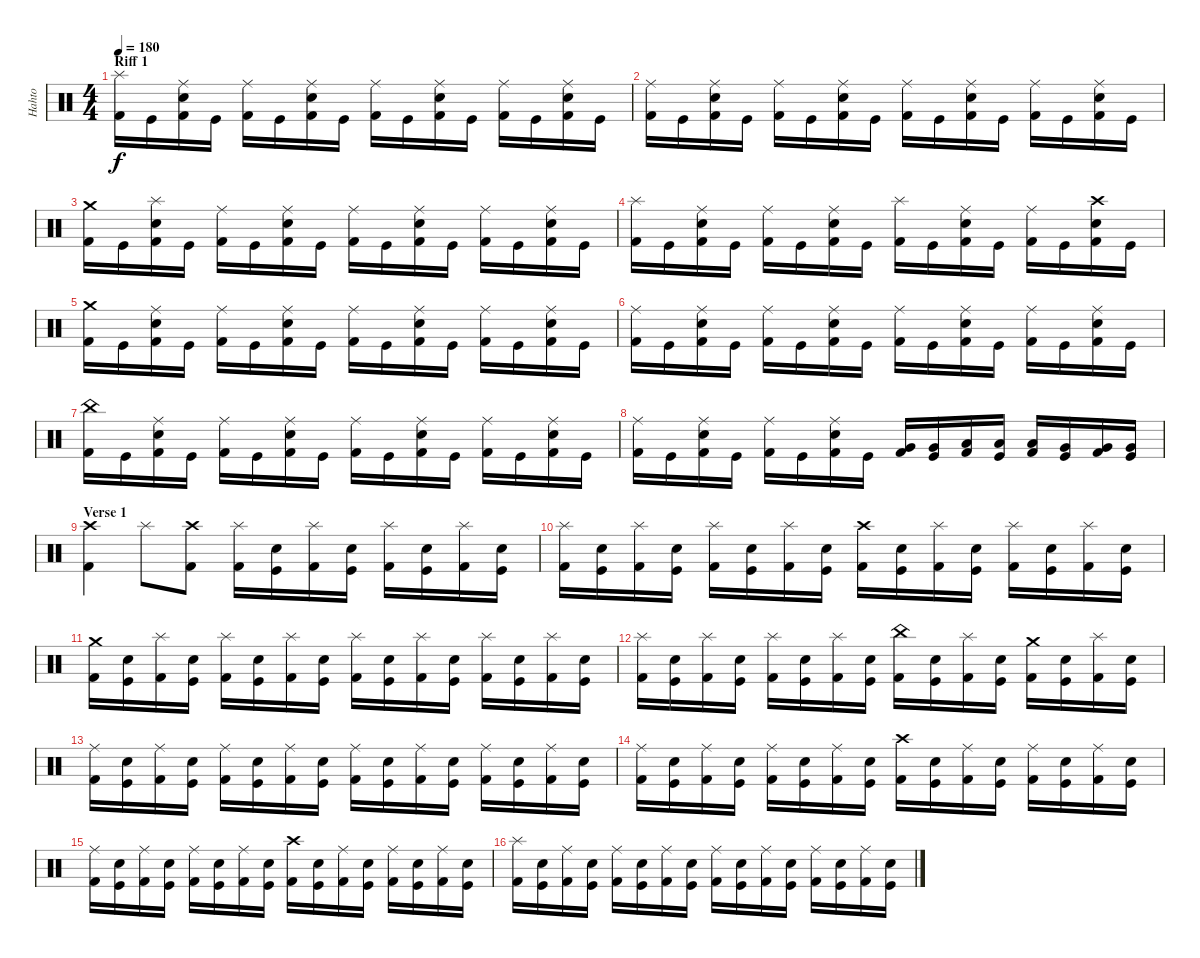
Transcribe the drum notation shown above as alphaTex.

\track ("Hahto" "Hahto") {instrument percussion}
\staff {score}
\articulation defaults
\ts (4 4)
\section ("" "Riff 1")
\tempo 180
\clef neutral
\ks c
("Splash (hit)" "Kick (hit) 2").16{dy f} "Kick (hit)".16 ("Ride (middle)" "Snare (hit) 2" "Kick (hit) 2").16 "Kick (hit)".16 ("Ride (middle)" "Kick (hit) 2").16 "Kick (hit)".16 ("Ride (middle)" "Snare (hit) 2" "Kick (hit) 2").16 "Kick (hit)".16 ("Ride (middle)" "Kick (hit) 2").16 "Kick (hit)".16 ("Ride (middle)" "Snare (hit) 2" "Kick (hit) 2").16 "Kick (hit)".16 ("Ride (middle)" "Kick (hit) 2").16 "Kick (hit)".16 ("Ride (middle)" "Snare (hit) 2" "Kick (hit) 2").16 "Kick (hit)".16 |
("Ride (middle)" "Kick (hit) 2").16 "Kick (hit)".16 ("Ride (middle)" "Snare (hit) 2" "Kick (hit) 2").16 "Kick (hit)".16 ("Ride (middle)" "Kick (hit) 2").16 "Kick (hit)".16 ("Ride (middle)" "Snare (hit) 2" "Kick (hit) 2").16 "Kick (hit)".16 ("Ride (middle)" "Kick (hit) 2").16 "Kick (hit)".16 ("Ride (middle)" "Snare (hit) 2" "Kick (hit) 2").16 "Kick (hit)".16 ("Ride (middle)" "Kick (hit) 2").16 "Kick (hit)".16 ("Ride (middle)" "Snare (hit) 2" "Kick (hit) 2").16 "Kick (hit)".16 |
("Crash medium (hit)" "Kick (hit) 2").16 "Kick (hit)".16 ("Splash (hit)" "Snare (hit) 2" "Kick (hit) 2").16 "Kick (hit)".16 ("Ride (middle)" "Kick (hit) 2").16 "Kick (hit)".16 ("Ride (middle)" "Snare (hit) 2" "Kick (hit) 2").16 "Kick (hit)".16 ("Ride (middle)" "Kick (hit) 2").16 "Kick (hit)".16 ("Ride (middle)" "Snare (hit) 2" "Kick (hit) 2").16 "Kick (hit)".16 ("Ride (middle)" "Kick (hit) 2").16 "Kick (hit)".16 ("Ride (middle)" "Snare (hit) 2" "Kick (hit) 2").16 "Kick (hit)".16 |
("Splash (hit)" "Kick (hit) 2").16 "Kick (hit)".16 ("Ride (middle)" "Snare (hit) 2" "Kick (hit) 2").16 "Kick (hit)".16 ("Ride (middle)" "Kick (hit) 2").16 "Kick (hit)".16 ("Ride (middle)" "Snare (hit) 2" "Kick (hit) 2").16 "Kick (hit)".16 ("Splash (hit)" "Kick (hit) 2").16 "Kick (hit)".16 ("Ride (middle)" "Snare (hit) 2" "Kick (hit) 2").16 "Kick (hit)".16 ("Ride (middle)" "Kick (hit) 2").16 "Kick (hit)".16 ("Crash high (hit)" "Snare (hit) 2" "Kick (hit) 2").16 "Kick (hit)".16 |
("Crash medium (hit)" "Kick (hit) 2").16 "Kick (hit)".16 ("Ride (middle)" "Snare (hit) 2" "Kick (hit) 2").16 "Kick (hit)".16 ("Ride (middle)" "Kick (hit) 2").16 "Kick (hit)".16 ("Ride (middle)" "Snare (hit) 2" "Kick (hit) 2").16 "Kick (hit)".16 ("Ride (middle)" "Kick (hit) 2").16 "Kick (hit)".16 ("Ride (middle)" "Snare (hit) 2" "Kick (hit) 2").16 "Kick (hit)".16 ("Ride (middle)" "Kick (hit) 2").16 "Kick (hit)".16 ("Ride (middle)" "Snare (hit) 2" "Kick (hit) 2").16 "Kick (hit)".16 |
("Ride (middle)" "Kick (hit) 2").16 "Kick (hit)".16 ("Ride (middle)" "Snare (hit) 2" "Kick (hit) 2").16 "Kick (hit)".16 ("Ride (middle)" "Kick (hit) 2").16 "Kick (hit)".16 ("Ride (middle)" "Snare (hit) 2" "Kick (hit) 2").16 "Kick (hit)".16 ("Ride (middle)" "Kick (hit) 2").16 "Kick (hit)".16 ("Ride (middle)" "Snare (hit) 2" "Kick (hit) 2").16 "Kick (hit)".16 ("Ride (middle)" "Kick (hit) 2").16 "Kick (hit)".16 ("Ride (middle)" "Snare (hit) 2" "Kick (hit) 2").16 "Kick (hit)".16 |
("China (hit)" "Kick (hit) 2").16 "Kick (hit)".16 ("Ride (middle)" "Snare (hit) 2" "Kick (hit) 2").16 "Kick (hit)".16 ("Ride (middle)" "Kick (hit) 2").16 "Kick (hit)".16 ("Ride (middle)" "Snare (hit) 2" "Kick (hit) 2").16 "Kick (hit)".16 ("Ride (middle)" "Kick (hit) 2").16 "Kick (hit)".16 ("Ride (middle)" "Snare (hit) 2" "Kick (hit) 2").16 "Kick (hit)".16 ("Ride (middle)" "Kick (hit) 2").16 "Kick (hit)".16 ("Ride (middle)" "Snare (hit) 2" "Kick (hit) 2").16 "Kick (hit)".16 |
("Ride (middle)" "Kick (hit) 2").16 "Kick (hit)".16 ("Ride (middle)" "Snare (hit) 2" "Kick (hit) 2").16 "Kick (hit)".16 ("Ride (middle)" "Kick (hit) 2").16 "Kick (hit)".16 ("Ride (middle)" "Snare (hit) 2" "Kick (hit) 2").16 "Kick (hit)".16 ("Very Low Tom (hit)" "Kick (hit) 2").16 ("Very Low Tom (hit)" "Kick (hit)").16 ("Low Tom (hit)" "Kick (hit) 2").16 ("Low Tom (hit)" "Kick (hit)").16 ("Low Tom (hit)" "Kick (hit) 2").16 ("Very Low Tom (hit)" "Kick (hit)").16 ("Very Low Tom (hit)" "Kick (hit) 2").16 ("Very Low Tom (hit)" "Kick (hit)").16 |
\section ("" "Verse 1")
("Crash high (hit)" "Kick (hit) 2").4 "Splash (hit)".8 ("Crash high (hit)" "Kick (hit) 2").8 ("Splash (hit)" "Kick (hit) 2").16 ("Snare (hit) 2" "Kick (hit)").16 ("Splash (hit)" "Kick (hit) 2").16 ("Snare (hit) 2" "Kick (hit)").16 ("Splash (hit)" "Kick (hit) 2").16 ("Snare (hit) 2" "Kick (hit)").16 ("Splash (hit)" "Kick (hit) 2").16 ("Snare (hit) 2" "Kick (hit)").16 |
("Splash (hit)" "Kick (hit) 2").16 ("Snare (hit) 2" "Kick (hit)").16 ("Splash (hit)" "Kick (hit) 2").16 ("Snare (hit) 2" "Kick (hit)").16 ("Splash (hit)" "Kick (hit) 2").16 ("Snare (hit) 2" "Kick (hit)").16 ("Splash (hit)" "Kick (hit) 2").16 ("Snare (hit) 2" "Kick (hit)").16 ("Crash high (hit)" "Kick (hit) 2").16 ("Snare (hit) 2" "Kick (hit)").16 ("Splash (hit)" "Kick (hit) 2").16 ("Snare (hit) 2" "Kick (hit)").16 ("Splash (hit)" "Kick (hit) 2").16 ("Snare (hit) 2" "Kick (hit)").16 ("Splash (hit)" "Kick (hit) 2").16 ("Snare (hit) 2" "Kick (hit)").16 |
("Crash medium (hit)" "Kick (hit) 2").16 ("Snare (hit) 2" "Kick (hit)").16 ("Splash (hit)" "Kick (hit) 2").16 ("Snare (hit) 2" "Kick (hit)").16 ("Splash (hit)" "Kick (hit) 2").16 ("Snare (hit) 2" "Kick (hit)").16 ("Splash (hit)" "Kick (hit) 2").16 ("Snare (hit) 2" "Kick (hit)").16 ("Splash (hit)" "Kick (hit) 2").16 ("Snare (hit) 2" "Kick (hit)").16 ("Splash (hit)" "Kick (hit) 2").16 ("Snare (hit) 2" "Kick (hit)").16 ("Splash (hit)" "Kick (hit) 2").16 ("Snare (hit) 2" "Kick (hit)").16 ("Splash (hit)" "Kick (hit) 2").16 ("Snare (hit) 2" "Kick (hit)").16 |
("Splash (hit)" "Kick (hit) 2").16 ("Snare (hit) 2" "Kick (hit)").16 ("Splash (hit)" "Kick (hit) 2").16 ("Snare (hit) 2" "Kick (hit)").16 ("Splash (hit)" "Kick (hit) 2").16 ("Snare (hit) 2" "Kick (hit)").16 ("Splash (hit)" "Kick (hit) 2").16 ("Snare (hit) 2" "Kick (hit)").16 ("China (hit)" "Kick (hit) 2").16 ("Snare (hit) 2" "Kick (hit)").16 ("Splash (hit)" "Kick (hit) 2").16 ("Snare (hit) 2" "Kick (hit)").16 ("Crash medium (hit)" "Kick (hit) 2").16 ("Snare (hit) 2" "Kick (hit)").16 ("Splash (hit)" "Kick (hit) 2").16 ("Snare (hit) 2" "Kick (hit)").16 |
("Ride (middle)" "Kick (hit) 2").16 ("Snare (hit) 2" "Kick (hit)").16 ("Ride (middle)" "Kick (hit) 2").16 ("Snare (hit) 2" "Kick (hit)").16 ("Ride (middle)" "Kick (hit) 2").16 ("Snare (hit) 2" "Kick (hit)").16 ("Ride (middle)" "Kick (hit) 2").16 ("Snare (hit) 2" "Kick (hit)").16 ("Ride (middle)" "Kick (hit) 2").16 ("Snare (hit) 2" "Kick (hit)").16 ("Ride (middle)" "Kick (hit) 2").16 ("Snare (hit) 2" "Kick (hit)").16 ("Ride (middle)" "Kick (hit) 2").16 ("Snare (hit) 2" "Kick (hit)").16 ("Ride (middle)" "Kick (hit) 2").16 ("Snare (hit) 2" "Kick (hit)").16 |
("Ride (middle)" "Kick (hit) 2").16 ("Snare (hit) 2" "Kick (hit)").16 ("Ride (middle)" "Kick (hit) 2").16 ("Snare (hit) 2" "Kick (hit)").16 ("Ride (middle)" "Kick (hit) 2").16 ("Snare (hit) 2" "Kick (hit)").16 ("Ride (middle)" "Kick (hit) 2").16 ("Snare (hit) 2" "Kick (hit)").16 ("Crash high (hit)" "Kick (hit) 2").16 ("Snare (hit) 2" "Kick (hit)").16 ("Ride (middle)" "Kick (hit) 2").16 ("Snare (hit) 2" "Kick (hit)").16 ("Ride (middle)" "Kick (hit) 2").16 ("Snare (hit) 2" "Kick (hit)").16 ("Ride (middle)" "Kick (hit) 2").16 ("Snare (hit) 2" "Kick (hit)").16 |
("Ride (middle)" "Kick (hit) 2").16 ("Snare (hit) 2" "Kick (hit)").16 ("Ride (middle)" "Kick (hit) 2").16 ("Snare (hit) 2" "Kick (hit)").16 ("Ride (middle)" "Kick (hit) 2").16 ("Snare (hit) 2" "Kick (hit)").16 ("Ride (middle)" "Kick (hit) 2").16 ("Snare (hit) 2" "Kick (hit)").16 ("Crash high (hit)" "Kick (hit) 2").16 ("Snare (hit) 2" "Kick (hit)").16 ("Ride (middle)" "Kick (hit) 2").16 ("Snare (hit) 2" "Kick (hit)").16 ("Ride (middle)" "Kick (hit) 2").16 ("Snare (hit) 2" "Kick (hit)").16 ("Ride (middle)" "Kick (hit) 2").16 ("Snare (hit) 2" "Kick (hit)").16 |
("Splash (hit)" "Kick (hit) 2").16 ("Snare (hit) 2" "Kick (hit)").16 ("Ride (middle)" "Kick (hit) 2").16 ("Snare (hit) 2" "Kick (hit)").16 ("Ride (middle)" "Kick (hit) 2").16 ("Snare (hit) 2" "Kick (hit)").16 ("Ride (middle)" "Kick (hit) 2").16 ("Snare (hit) 2" "Kick (hit)").16 ("Ride (middle)" "Kick (hit) 2").16 ("Snare (hit) 2" "Kick (hit)").16 ("Ride (middle)" "Kick (hit) 2").16 ("Snare (hit) 2" "Kick (hit)").16 ("Ride (middle)" "Kick (hit) 2").16 ("Snare (hit) 2" "Kick (hit)").16 ("Ride (middle)" "Kick (hit) 2").16 ("Snare (hit) 2" "Kick (hit)").16
